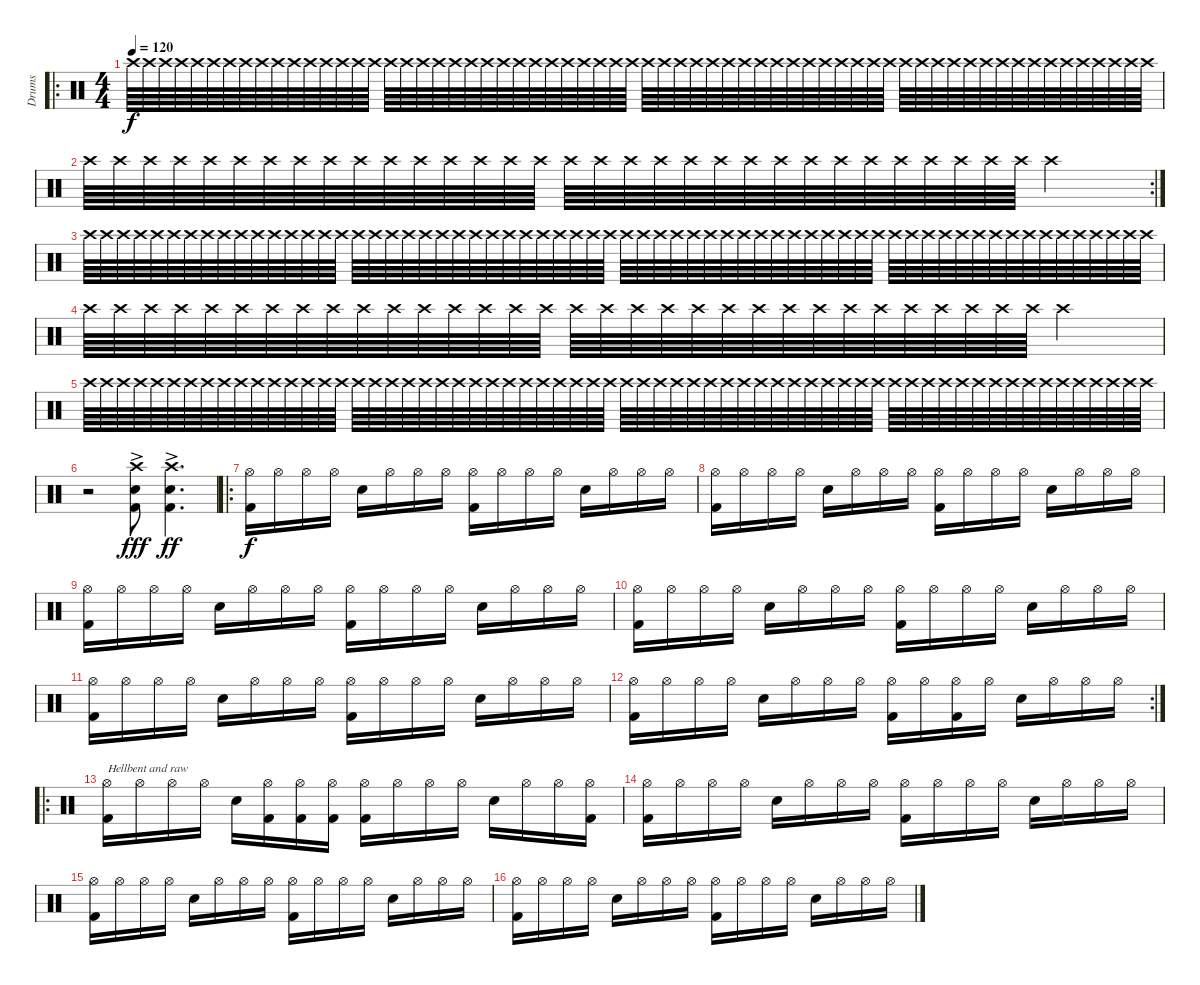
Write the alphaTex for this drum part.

\track ("Drums" "Drums") {instrument percussion}
\staff {score}
\articulation defaults
\ro
\ts (4 4)
\tempo 120
\clef neutral
\ks c "Crash high (hit)".64{dy f volume 0} "Crash high (hit)".64{volume 10} "Crash high (hit)".64 "Crash high (hit)".64 "Crash high (hit)".64 "Crash high (hit)".64 "Crash high (hit)".64 "Crash high (hit)".64 "Crash high (hit)".64 "Crash high (hit)".64 "Crash high (hit)".64 "Crash high (hit)".64 "Crash high (hit)".64 "Crash high (hit)".64 "Crash high (hit)".64 "Crash high (hit)".64 "Crash high (hit)".64 "Crash high (hit)".64 "Crash high (hit)".64 "Crash high (hit)".64 "Crash high (hit)".64 "Crash high (hit)".64 "Crash high (hit)".64 "Crash high (hit)".64 "Crash high (hit)".64 "Crash high (hit)".64 "Crash high (hit)".64 "Crash high (hit)".64 "Crash high (hit)".64 "Crash high (hit)".64 "Crash high (hit)".64 "Crash high (hit)".64 "Crash high (hit)".64 "Crash high (hit)".64 "Crash high (hit)".64 "Crash high (hit)".64 "Crash high (hit)".64 "Crash high (hit)".64 "Crash high (hit)".64 "Crash high (hit)".64 "Crash high (hit)".64 "Crash high (hit)".64 "Crash high (hit)".64 "Crash high (hit)".64 "Crash high (hit)".64 "Crash high (hit)".64 "Crash high (hit)".64 "Crash high (hit)".64 "Crash high (hit)".64 "Crash high (hit)".64 "Crash high (hit)".64 "Crash high (hit)".64 "Crash high (hit)".64 "Crash high (hit)".64 "Crash high (hit)".64 "Crash high (hit)".64 "Crash high (hit)".64 "Crash high (hit)".64 "Crash high (hit)".64 "Crash high (hit)".64 "Crash high (hit)".64 "Crash high (hit)".64 "Crash high (hit)".64 "Crash high (hit)".64
|
\rc 2 "Crash high (hit)".64 "Crash high (hit)".64 "Crash high (hit)".64 "Crash high (hit)".64 "Crash high (hit)".64 "Crash high (hit)".64 "Crash high (hit)".64 "Crash high (hit)".64 "Crash high (hit)".64 "Crash high (hit)".64 "Crash high (hit)".64 "Crash high (hit)".64 "Crash high (hit)".64 "Crash high (hit)".64 "Crash high (hit)".64 "Crash high (hit)".64 "Crash high (hit)".64 "Crash high (hit)".64 "Crash high (hit)".64 "Crash high (hit)".64 "Crash high (hit)".64 "Crash high (hit)".64 "Crash high (hit)".64 "Crash high (hit)".64 "Crash high (hit)".64 "Crash high (hit)".64 "Crash high (hit)".64 "Crash high (hit)".64 "Crash high (hit)".64 "Crash high (hit)".64 "Crash high (hit)".64 "Crash high (hit)".64 "Crash high (hit)".2
|
"Crash high (hit)".64{volume 0} "Crash high (hit)".64{volume 10} "Crash high (hit)".64 "Crash high (hit)".64 "Crash high (hit)".64 "Crash high (hit)".64 "Crash high (hit)".64 "Crash high (hit)".64 "Crash high (hit)".64 "Crash high (hit)".64 "Crash high (hit)".64 "Crash high (hit)".64 "Crash high (hit)".64 "Crash high (hit)".64 "Crash high (hit)".64 "Crash high (hit)".64 "Crash high (hit)".64 "Crash high (hit)".64 "Crash high (hit)".64 "Crash high (hit)".64 "Crash high (hit)".64 "Crash high (hit)".64 "Crash high (hit)".64 "Crash high (hit)".64 "Crash high (hit)".64 "Crash high (hit)".64 "Crash high (hit)".64 "Crash high (hit)".64 "Crash high (hit)".64 "Crash high (hit)".64 "Crash high (hit)".64 "Crash high (hit)".64 "Crash high (hit)".64 "Crash high (hit)".64 "Crash high (hit)".64 "Crash high (hit)".64 "Crash high (hit)".64 "Crash high (hit)".64 "Crash high (hit)".64 "Crash high (hit)".64 "Crash high (hit)".64 "Crash high (hit)".64 "Crash high (hit)".64 "Crash high (hit)".64 "Crash high (hit)".64 "Crash high (hit)".64 "Crash high (hit)".64 "Crash high (hit)".64 "Crash high (hit)".64 "Crash high (hit)".64 "Crash high (hit)".64 "Crash high (hit)".64 "Crash high (hit)".64 "Crash high (hit)".64 "Crash high (hit)".64 "Crash high (hit)".64 "Crash high (hit)".64 "Crash high (hit)".64 "Crash high (hit)".64 "Crash high (hit)".64 "Crash high (hit)".64 "Crash high (hit)".64 "Crash high (hit)".64 "Crash high (hit)".64 |
"Crash high (hit)".64 "Crash high (hit)".64 "Crash high (hit)".64 "Crash high (hit)".64 "Crash high (hit)".64 "Crash high (hit)".64 "Crash high (hit)".64 "Crash high (hit)".64 "Crash high (hit)".64 "Crash high (hit)".64 "Crash high (hit)".64 "Crash high (hit)".64 "Crash high (hit)".64 "Crash high (hit)".64 "Crash high (hit)".64 "Crash high (hit)".64 "Crash high (hit)".64 "Crash high (hit)".64 "Crash high (hit)".64 "Crash high (hit)".64 "Crash high (hit)".64 "Crash high (hit)".64 "Crash high (hit)".64 "Crash high (hit)".64 "Crash high (hit)".64 "Crash high (hit)".64 "Crash high (hit)".64 "Crash high (hit)".64 "Crash high (hit)".64 "Crash high (hit)".64 "Crash high (hit)".64 "Crash high (hit)".64 "Crash high (hit)".2 |
"Crash high (hit)".64{volume 0} "Crash high (hit)".64{volume 10} "Crash high (hit)".64 "Crash high (hit)".64 "Crash high (hit)".64 "Crash high (hit)".64 "Crash high (hit)".64 "Crash high (hit)".64 "Crash high (hit)".64 "Crash high (hit)".64 "Crash high (hit)".64 "Crash high (hit)".64 "Crash high (hit)".64 "Crash high (hit)".64 "Crash high (hit)".64 "Crash high (hit)".64 "Crash high (hit)".64 "Crash high (hit)".64 "Crash high (hit)".64 "Crash high (hit)".64 "Crash high (hit)".64 "Crash high (hit)".64 "Crash high (hit)".64 "Crash high (hit)".64 "Crash high (hit)".64 "Crash high (hit)".64 "Crash high (hit)".64 "Crash high (hit)".64 "Crash high (hit)".64 "Crash high (hit)".64 "Crash high (hit)".64 "Crash high (hit)".64 "Crash high (hit)".64 "Crash high (hit)".64 "Crash high (hit)".64 "Crash high (hit)".64 "Crash high (hit)".64 "Crash high (hit)".64 "Crash high (hit)".64 "Crash high (hit)".64 "Crash high (hit)".64 "Crash high (hit)".64 "Crash high (hit)".64 "Crash high (hit)".64 "Crash high (hit)".64 "Crash high (hit)".64 "Crash high (hit)".64 "Crash high (hit)".64 "Crash high (hit)".64 "Crash high (hit)".64 "Crash high (hit)".64 "Crash high (hit)".64 "Crash high (hit)".64 "Crash high (hit)".64 "Crash high (hit)".64 "Crash high (hit)".64 "Crash high (hit)".64 "Crash high (hit)".64 "Crash high (hit)".64 "Crash high (hit)".64 "Crash high (hit)".64 "Crash high (hit)".64 "Crash high (hit)".64 "Crash high (hit)".64 |
r.2 ("Crash high (hit)"{ac} "Electric Snare (hit)"{ac} "Kick (hit) 2"{ac}).8{dy fff} ("Crash high (hit)"{ac} "Electric Snare (hit)"{ac} "Kick (hit) 2"{ac}).4{d dy ff} |
\ro
("Hi-Hat (open)" "Kick (hit) 2").16{dy f} "Hi-Hat (open)".16 "Hi-Hat (open)".16 "Hi-Hat (open)".16 "Electric Snare (hit)".16 "Hi-Hat (open)".16 "Hi-Hat (open)".16 "Hi-Hat (open)".16 ("Hi-Hat (open)" "Kick (hit) 2").16 "Hi-Hat (open)".16 "Hi-Hat (open)".16 "Hi-Hat (open)".16 "Electric Snare (hit)".16 "Hi-Hat (open)".16 "Hi-Hat (open)".16 "Hi-Hat (open)".16 |
("Hi-Hat (open)" "Kick (hit) 2").16 "Hi-Hat (open)".16 "Hi-Hat (open)".16 "Hi-Hat (open)".16 "Electric Snare (hit)".16 "Hi-Hat (open)".16 "Hi-Hat (open)".16 "Hi-Hat (open)".16 ("Hi-Hat (open)" "Kick (hit) 2").16 "Hi-Hat (open)".16 "Hi-Hat (open)".16 "Hi-Hat (open)".16 "Electric Snare (hit)".16 "Hi-Hat (open)".16 "Hi-Hat (open)".16 "Hi-Hat (open)".16 |
("Hi-Hat (open)" "Kick (hit) 2").16 "Hi-Hat (open)".16 "Hi-Hat (open)".16 "Hi-Hat (open)".16 "Electric Snare (hit)".16 "Hi-Hat (open)".16 "Hi-Hat (open)".16 "Hi-Hat (open)".16 ("Hi-Hat (open)" "Kick (hit) 2").16 "Hi-Hat (open)".16 "Hi-Hat (open)".16 "Hi-Hat (open)".16 "Electric Snare (hit)".16 "Hi-Hat (open)".16 "Hi-Hat (open)".16 "Hi-Hat (open)".16 |
("Hi-Hat (open)" "Kick (hit) 2").16 "Hi-Hat (open)".16 "Hi-Hat (open)".16 "Hi-Hat (open)".16 "Electric Snare (hit)".16 "Hi-Hat (open)".16 "Hi-Hat (open)".16 "Hi-Hat (open)".16 ("Hi-Hat (open)" "Kick (hit) 2").16 "Hi-Hat (open)".16 "Hi-Hat (open)".16 "Hi-Hat (open)".16 "Electric Snare (hit)".16 "Hi-Hat (open)".16 "Hi-Hat (open)".16 "Hi-Hat (open)".16 |
("Hi-Hat (open)" "Kick (hit) 2").16 "Hi-Hat (open)".16 "Hi-Hat (open)".16 "Hi-Hat (open)".16 "Electric Snare (hit)".16 "Hi-Hat (open)".16 "Hi-Hat (open)".16 "Hi-Hat (open)".16 ("Hi-Hat (open)" "Kick (hit) 2").16 "Hi-Hat (open)".16 "Hi-Hat (open)".16 "Hi-Hat (open)".16 "Electric Snare (hit)".16 "Hi-Hat (open)".16 "Hi-Hat (open)".16 "Hi-Hat (open)".16 |
\rc 2
("Hi-Hat (open)" "Kick (hit) 2").16 "Hi-Hat (open)".16 "Hi-Hat (open)".16 "Hi-Hat (open)".16 "Electric Snare (hit)".16 "Hi-Hat (open)".16 "Hi-Hat (open)".16 "Hi-Hat (open)".16 ("Hi-Hat (open)" "Kick (hit) 2").16 "Hi-Hat (open)".16 ("Hi-Hat (open)" "Kick (hit) 2").16 "Hi-Hat (open)".16 "Electric Snare (hit)".16 "Hi-Hat (open)".16 "Hi-Hat (open)".16 "Hi-Hat (open)".16 |
\ro
("Hi-Hat (open)" "Kick (hit) 2").16{txt "Hellbent and raw"} "Hi-Hat (open)".16 "Hi-Hat (open)".16 "Hi-Hat (open)".16 "Electric Snare (hit)".16 ("Hi-Hat (open)" "Kick (hit) 2").16 ("Hi-Hat (open)" "Kick (hit) 2").16 ("Hi-Hat (open)" "Kick (hit) 2").16 ("Hi-Hat (open)" "Kick (hit) 2").16 "Hi-Hat (open)".16 "Hi-Hat (open)".16 "Hi-Hat (open)".16 "Electric Snare (hit)".16 "Hi-Hat (open)".16 "Hi-Hat (open)".16 ("Hi-Hat (open)" "Kick (hit) 2").16 |
("Hi-Hat (open)" "Kick (hit) 2").16 "Hi-Hat (open)".16 "Hi-Hat (open)".16 "Hi-Hat (open)".16 "Electric Snare (hit)".16 "Hi-Hat (open)".16 "Hi-Hat (open)".16 "Hi-Hat (open)".16 ("Hi-Hat (open)" "Kick (hit) 2").16 "Hi-Hat (open)".16 "Hi-Hat (open)".16 "Hi-Hat (open)".16 "Electric Snare (hit)".16 "Hi-Hat (open)".16 "Hi-Hat (open)".16 "Hi-Hat (open)".16 |
("Hi-Hat (open)" "Kick (hit) 2").16 "Hi-Hat (open)".16 "Hi-Hat (open)".16 "Hi-Hat (open)".16 "Electric Snare (hit)".16 "Hi-Hat (open)".16 "Hi-Hat (open)".16 "Hi-Hat (open)".16 ("Hi-Hat (open)" "Kick (hit) 2").16 "Hi-Hat (open)".16 "Hi-Hat (open)".16 "Hi-Hat (open)".16 "Electric Snare (hit)".16 "Hi-Hat (open)".16 "Hi-Hat (open)".16 "Hi-Hat (open)".16 |
("Hi-Hat (open)" "Kick (hit) 2").16 "Hi-Hat (open)".16 "Hi-Hat (open)".16 "Hi-Hat (open)".16 "Electric Snare (hit)".16 "Hi-Hat (open)".16 "Hi-Hat (open)".16 "Hi-Hat (open)".16 ("Hi-Hat (open)" "Kick (hit) 2").16 "Hi-Hat (open)".16 "Hi-Hat (open)".16 "Hi-Hat (open)".16 "Electric Snare (hit)".16 "Hi-Hat (open)".16 "Hi-Hat (open)".16 "Hi-Hat (open)".16
